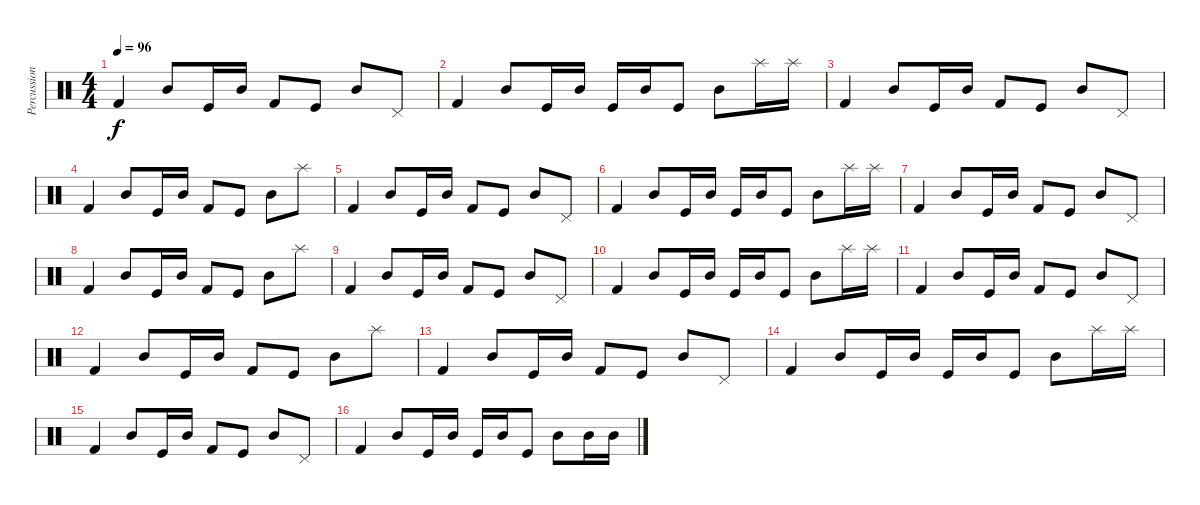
\track ("Percussions" "Percussion") {instrument percussion}
\staff {score}
\articulation defaults
\ts (4 4)
\tempo 96
\clef neutral
\ks c "Kick (hit) 2".4{dy f} "Mid Tom (hit)".8 "Kick (hit)".16 "Mid Tom (hit)".16 "Kick (hit) 2".8 "Kick (hit)".8 "Mid Tom (hit)".8 "Pedal Hi-Hat (hit)".8
|
"Kick (hit) 2".4 "Mid Tom (hit)".8 "Kick (hit)".16 "Mid Tom (hit)".16 "Kick (hit)".16 "Mid Tom (hit)".16 "Kick (hit)".8 "Mid Tom (hit)".8 "Splash (hit)".16 "Splash (hit)".16 |
"Kick (hit) 2".4{volume 16} "Mid Tom (hit)".8 "Kick (hit)".16 "Mid Tom (hit)".16 "Kick (hit) 2".8 "Kick (hit)".8 "Mid Tom (hit)".8 "Pedal Hi-Hat (hit)".8 |
"Kick (hit) 2".4 "Mid Tom (hit)".8 "Kick (hit)".16 "Mid Tom (hit)".16 "Kick (hit) 2".8 "Kick (hit)".8 "Mid Tom (hit)".8 "Splash (hit)".8 |
"Kick (hit) 2".4 "Mid Tom (hit)".8 "Kick (hit)".16 "Mid Tom (hit)".16 "Kick (hit) 2".8 "Kick (hit)".8 "Mid Tom (hit)".8 "Pedal Hi-Hat (hit)".8 |
"Kick (hit) 2".4 "Mid Tom (hit)".8 "Kick (hit)".16 "Mid Tom (hit)".16 "Kick (hit)".16 "Mid Tom (hit)".16 "Kick (hit)".8 "Mid Tom (hit)".8 "Splash (hit)".16 "Splash (hit)".16 |
"Kick (hit) 2".4{volume 16} "Mid Tom (hit)".8 "Kick (hit)".16 "Mid Tom (hit)".16 "Kick (hit) 2".8 "Kick (hit)".8 "Mid Tom (hit)".8 "Pedal Hi-Hat (hit)".8 |
"Kick (hit) 2".4 "Mid Tom (hit)".8 "Kick (hit)".16 "Mid Tom (hit)".16 "Kick (hit) 2".8 "Kick (hit)".8 "Mid Tom (hit)".8 "Splash (hit)".8 |
"Kick (hit) 2".4 "Mid Tom (hit)".8 "Kick (hit)".16 "Mid Tom (hit)".16 "Kick (hit) 2".8 "Kick (hit)".8 "Mid Tom (hit)".8 "Pedal Hi-Hat (hit)".8 |
"Kick (hit) 2".4 "Mid Tom (hit)".8 "Kick (hit)".16 "Mid Tom (hit)".16 "Kick (hit)".16 "Mid Tom (hit)".16 "Kick (hit)".8 "Mid Tom (hit)".8 "Splash (hit)".16 "Splash (hit)".16 |
"Kick (hit) 2".4{volume 16} "Mid Tom (hit)".8 "Kick (hit)".16 "Mid Tom (hit)".16 "Kick (hit) 2".8 "Kick (hit)".8 "Mid Tom (hit)".8 "Pedal Hi-Hat (hit)".8 |
"Kick (hit) 2".4 "Mid Tom (hit)".8 "Kick (hit)".16 "Mid Tom (hit)".16 "Kick (hit) 2".8 "Kick (hit)".8 "Mid Tom (hit)".8 "Splash (hit)".8 |
"Kick (hit) 2".4 "Mid Tom (hit)".8 "Kick (hit)".16 "Mid Tom (hit)".16 "Kick (hit) 2".8 "Kick (hit)".8 "Mid Tom (hit)".8 "Pedal Hi-Hat (hit)".8 |
"Kick (hit) 2".4 "Mid Tom (hit)".8 "Kick (hit)".16 "Mid Tom (hit)".16 "Kick (hit)".16 "Mid Tom (hit)".16 "Kick (hit)".8 "Mid Tom (hit)".8 "Splash (hit)".16 "Splash (hit)".16 |
"Kick (hit) 2".4 "Mid Tom (hit)".8 "Kick (hit)".16 "Mid Tom (hit)".16 "Kick (hit) 2".8 "Kick (hit)".8 "Mid Tom (hit)".8 "Pedal Hi-Hat (hit)".8 |
"Kick (hit) 2".4 "Mid Tom (hit)".8 "Kick (hit)".16 "Mid Tom (hit)".16 "Kick (hit)".16 "Mid Tom (hit)".16 "Kick (hit)".8 "Mid Tom (hit)".8 "Mid Tom (hit)".16 "Mid Tom (hit)".16
